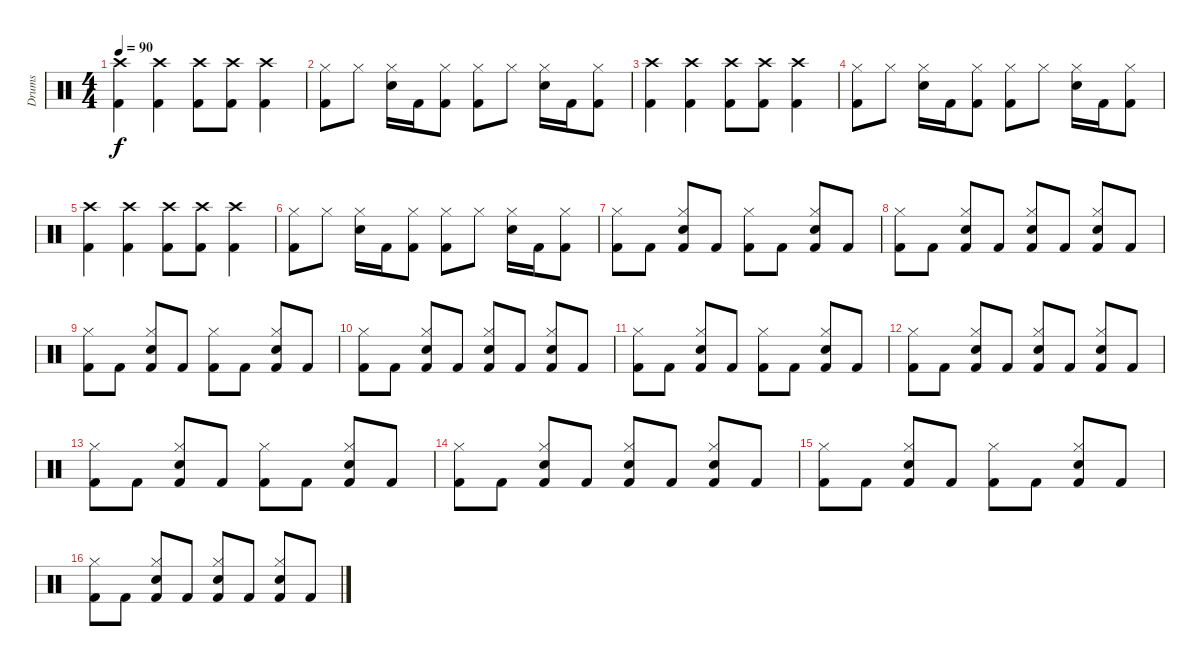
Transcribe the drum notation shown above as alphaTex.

\track ("Drums" "Drums") {instrument percussion}
\staff {score}
\articulation defaults
\ts (4 4)
\tempo 90
\clef neutral
\ks c
("Crash high (hit)" "Kick (hit) 2").4{dy f} ("Crash high (hit)" "Kick (hit) 2").4 ("Crash high (hit)" "Kick (hit) 2").8 ("Crash high (hit)" "Kick (hit) 2").8 ("Crash high (hit)" "Kick (hit) 2").4 |
("Hi-Hat (closed)" "Kick (hit) 2").8 "Hi-Hat (closed)".8 ("Hi-Hat (closed)" "Snare (hit) 2").16 "Kick (hit) 2".16 ("Hi-Hat (closed)" "Kick (hit) 2").8 ("Hi-Hat (closed)" "Kick (hit) 2").8 "Hi-Hat (closed)".8 ("Hi-Hat (closed)" "Snare (hit) 2").16 "Kick (hit) 2".16 ("Hi-Hat (closed)" "Kick (hit) 2").8 |
("Crash high (hit)" "Kick (hit) 2").4 ("Crash high (hit)" "Kick (hit) 2").4 ("Crash high (hit)" "Kick (hit) 2").8 ("Crash high (hit)" "Kick (hit) 2").8 ("Crash high (hit)" "Kick (hit) 2").4 |
("Hi-Hat (closed)" "Kick (hit) 2").8 "Hi-Hat (closed)".8 ("Hi-Hat (closed)" "Snare (hit) 2").16 "Kick (hit) 2".16 ("Hi-Hat (closed)" "Kick (hit) 2").8 ("Hi-Hat (closed)" "Kick (hit) 2").8 "Hi-Hat (closed)".8 ("Hi-Hat (closed)" "Snare (hit) 2").16 "Kick (hit) 2".16 ("Hi-Hat (closed)" "Kick (hit) 2").8 |
("Crash high (hit)" "Kick (hit) 2").4 ("Crash high (hit)" "Kick (hit) 2").4 ("Crash high (hit)" "Kick (hit) 2").8 ("Crash high (hit)" "Kick (hit) 2").8 ("Crash high (hit)" "Kick (hit) 2").4 |
("Hi-Hat (closed)" "Kick (hit) 2").8 "Hi-Hat (closed)".8 ("Hi-Hat (closed)" "Snare (hit) 2").16 "Kick (hit) 2".16 ("Hi-Hat (closed)" "Kick (hit) 2").8 ("Hi-Hat (closed)" "Kick (hit) 2").8 "Hi-Hat (closed)".8 ("Hi-Hat (closed)" "Snare (hit) 2").16 "Kick (hit) 2".16 ("Hi-Hat (closed)" "Kick (hit) 2").8 |
("Hi-Hat (closed)" "Kick (hit) 2").8 "Kick (hit) 2".8 ("Hi-Hat (closed)" "Kick (hit) 2" "Snare (hit) 2").8 "Kick (hit) 2".8 ("Hi-Hat (closed)" "Kick (hit) 2").8 "Kick (hit) 2".8 ("Hi-Hat (closed)" "Kick (hit) 2" "Snare (hit) 2").8 "Kick (hit) 2".8 |
("Hi-Hat (closed)" "Kick (hit) 2").8 "Kick (hit) 2".8 ("Hi-Hat (closed)" "Kick (hit) 2" "Snare (hit) 2").8 "Kick (hit) 2".8 ("Hi-Hat (closed)" "Kick (hit) 2" "Snare (hit) 2").8 "Kick (hit) 2".8 ("Hi-Hat (closed)" "Kick (hit) 2" "Snare (hit) 2").8 "Kick (hit) 2".8 |
("Hi-Hat (closed)" "Kick (hit) 2").8 "Kick (hit) 2".8 ("Hi-Hat (closed)" "Kick (hit) 2" "Snare (hit) 2").8 "Kick (hit) 2".8 ("Hi-Hat (closed)" "Kick (hit) 2").8 "Kick (hit) 2".8 ("Hi-Hat (closed)" "Kick (hit) 2" "Snare (hit) 2").8 "Kick (hit) 2".8 |
("Hi-Hat (closed)" "Kick (hit) 2").8 "Kick (hit) 2".8 ("Hi-Hat (closed)" "Kick (hit) 2" "Snare (hit) 2").8 "Kick (hit) 2".8 ("Hi-Hat (closed)" "Kick (hit) 2" "Snare (hit) 2").8 "Kick (hit) 2".8 ("Hi-Hat (closed)" "Kick (hit) 2" "Snare (hit) 2").8 "Kick (hit) 2".8 |
("Hi-Hat (closed)" "Kick (hit) 2").8 "Kick (hit) 2".8 ("Hi-Hat (closed)" "Kick (hit) 2" "Snare (hit) 2").8 "Kick (hit) 2".8 ("Hi-Hat (closed)" "Kick (hit) 2").8 "Kick (hit) 2".8 ("Hi-Hat (closed)" "Kick (hit) 2" "Snare (hit) 2").8 "Kick (hit) 2".8 |
("Hi-Hat (closed)" "Kick (hit) 2").8 "Kick (hit) 2".8 ("Hi-Hat (closed)" "Kick (hit) 2" "Snare (hit) 2").8 "Kick (hit) 2".8 ("Hi-Hat (closed)" "Kick (hit) 2" "Snare (hit) 2").8 "Kick (hit) 2".8 ("Hi-Hat (closed)" "Kick (hit) 2" "Snare (hit) 2").8 "Kick (hit) 2".8 |
("Hi-Hat (closed)" "Kick (hit) 2").8 "Kick (hit) 2".8 ("Hi-Hat (closed)" "Kick (hit) 2" "Snare (hit) 2").8 "Kick (hit) 2".8 ("Hi-Hat (closed)" "Kick (hit) 2").8 "Kick (hit) 2".8 ("Hi-Hat (closed)" "Kick (hit) 2" "Snare (hit) 2").8 "Kick (hit) 2".8 |
("Hi-Hat (closed)" "Kick (hit) 2").8 "Kick (hit) 2".8 ("Hi-Hat (closed)" "Kick (hit) 2" "Snare (hit) 2").8 "Kick (hit) 2".8 ("Hi-Hat (closed)" "Kick (hit) 2" "Snare (hit) 2").8 "Kick (hit) 2".8 ("Hi-Hat (closed)" "Kick (hit) 2" "Snare (hit) 2").8 "Kick (hit) 2".8 |
("Hi-Hat (closed)" "Kick (hit) 2").8 "Kick (hit) 2".8 ("Hi-Hat (closed)" "Kick (hit) 2" "Snare (hit) 2").8 "Kick (hit) 2".8 ("Hi-Hat (closed)" "Kick (hit) 2").8 "Kick (hit) 2".8 ("Hi-Hat (closed)" "Kick (hit) 2" "Snare (hit) 2").8 "Kick (hit) 2".8 |
("Hi-Hat (closed)" "Kick (hit) 2").8 "Kick (hit) 2".8 ("Hi-Hat (closed)" "Kick (hit) 2" "Snare (hit) 2").8 "Kick (hit) 2".8 ("Hi-Hat (closed)" "Kick (hit) 2" "Snare (hit) 2").8 "Kick (hit) 2".8 ("Hi-Hat (closed)" "Kick (hit) 2" "Snare (hit) 2").8 "Kick (hit) 2".8
